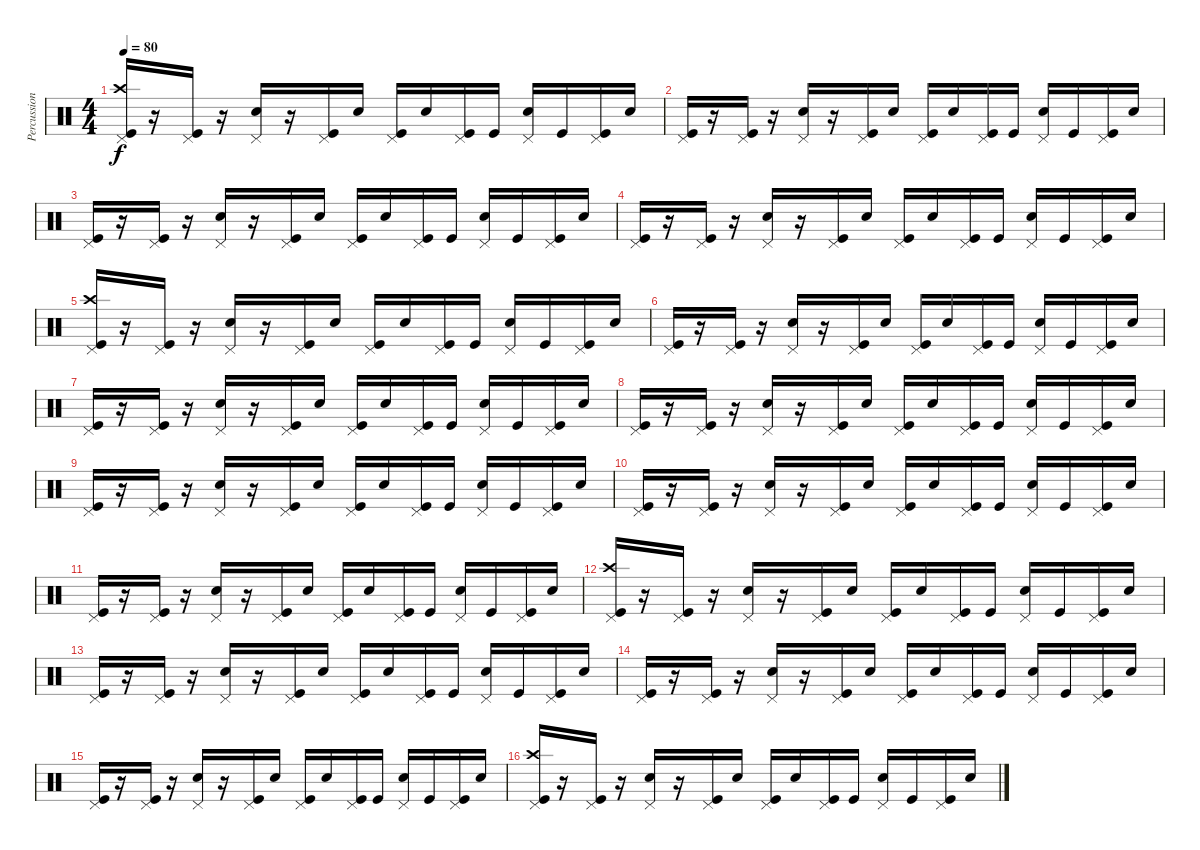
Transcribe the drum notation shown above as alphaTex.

\track ("Percussions" "Percussion") {instrument percussion}
\staff {score}
\articulation defaults
\ts (4 4)
\tempo 80
\clef neutral
\ks c
("Pedal Hi-Hat (hit)" "Crash high (hit)" "Kick (hit)").16{dy f} r.16 ("Pedal Hi-Hat (hit)" "Kick (hit)").16 r.16 ("Pedal Hi-Hat (hit)" "Electric Snare (hit)").16 r.16 ("Pedal Hi-Hat (hit)" "Kick (hit)").16 "Electric Snare (hit)".16 ("Pedal Hi-Hat (hit)" "Kick (hit)").16 "Electric Snare (hit)".16 ("Pedal Hi-Hat (hit)" "Kick (hit)").16 "Kick (hit)".16 ("Pedal Hi-Hat (hit)" "Electric Snare (hit)").16 "Kick (hit)".16 ("Pedal Hi-Hat (hit)" "Kick (hit)").16 "Electric Snare (hit)".16 |
("Pedal Hi-Hat (hit)" "Kick (hit)").16 r.16 ("Pedal Hi-Hat (hit)" "Kick (hit)").16 r.16 ("Pedal Hi-Hat (hit)" "Electric Snare (hit)").16 r.16 ("Pedal Hi-Hat (hit)" "Kick (hit)").16 "Electric Snare (hit)".16 ("Pedal Hi-Hat (hit)" "Kick (hit)").16 "Electric Snare (hit)".16 ("Pedal Hi-Hat (hit)" "Kick (hit)").16 "Kick (hit)".16 ("Pedal Hi-Hat (hit)" "Electric Snare (hit)").16 "Kick (hit)".16 ("Pedal Hi-Hat (hit)" "Kick (hit)").16 "Electric Snare (hit)".16 |
("Pedal Hi-Hat (hit)" "Kick (hit)").16 r.16 ("Pedal Hi-Hat (hit)" "Kick (hit)").16 r.16 ("Pedal Hi-Hat (hit)" "Electric Snare (hit)").16 r.16 ("Pedal Hi-Hat (hit)" "Kick (hit)").16 "Electric Snare (hit)".16 ("Pedal Hi-Hat (hit)" "Kick (hit)").16 "Electric Snare (hit)".16 ("Pedal Hi-Hat (hit)" "Kick (hit)").16 "Kick (hit)".16 ("Pedal Hi-Hat (hit)" "Electric Snare (hit)").16 "Kick (hit)".16 ("Pedal Hi-Hat (hit)" "Kick (hit)").16 "Electric Snare (hit)".16 |
("Pedal Hi-Hat (hit)" "Kick (hit)").16 r.16 ("Pedal Hi-Hat (hit)" "Kick (hit)").16 r.16 ("Pedal Hi-Hat (hit)" "Electric Snare (hit)").16 r.16 ("Pedal Hi-Hat (hit)" "Kick (hit)").16 "Electric Snare (hit)".16 ("Pedal Hi-Hat (hit)" "Kick (hit)").16 "Electric Snare (hit)".16 ("Pedal Hi-Hat (hit)" "Kick (hit)").16 "Kick (hit)".16 ("Pedal Hi-Hat (hit)" "Electric Snare (hit)").16 "Kick (hit)".16 ("Pedal Hi-Hat (hit)" "Kick (hit)").16 "Electric Snare (hit)".16 |
("Pedal Hi-Hat (hit)" "Crash high (hit)" "Kick (hit)").16 r.16 ("Pedal Hi-Hat (hit)" "Kick (hit)").16 r.16 ("Pedal Hi-Hat (hit)" "Electric Snare (hit)").16 r.16 ("Pedal Hi-Hat (hit)" "Kick (hit)").16 "Electric Snare (hit)".16 ("Pedal Hi-Hat (hit)" "Kick (hit)").16 "Electric Snare (hit)".16 ("Pedal Hi-Hat (hit)" "Kick (hit)").16 "Kick (hit)".16 ("Pedal Hi-Hat (hit)" "Electric Snare (hit)").16 "Kick (hit)".16 ("Pedal Hi-Hat (hit)" "Kick (hit)").16 "Electric Snare (hit)".16 |
("Pedal Hi-Hat (hit)" "Kick (hit)").16 r.16 ("Pedal Hi-Hat (hit)" "Kick (hit)").16 r.16 ("Pedal Hi-Hat (hit)" "Electric Snare (hit)").16 r.16 ("Pedal Hi-Hat (hit)" "Kick (hit)").16 "Electric Snare (hit)".16 ("Pedal Hi-Hat (hit)" "Kick (hit)").16 "Electric Snare (hit)".16 ("Pedal Hi-Hat (hit)" "Kick (hit)").16 "Kick (hit)".16 ("Pedal Hi-Hat (hit)" "Electric Snare (hit)").16 "Kick (hit)".16 ("Pedal Hi-Hat (hit)" "Kick (hit)").16 "Electric Snare (hit)".16 |
("Pedal Hi-Hat (hit)" "Kick (hit)").16 r.16 ("Pedal Hi-Hat (hit)" "Kick (hit)").16 r.16 ("Pedal Hi-Hat (hit)" "Electric Snare (hit)").16 r.16 ("Pedal Hi-Hat (hit)" "Kick (hit)").16 "Electric Snare (hit)".16 ("Pedal Hi-Hat (hit)" "Kick (hit)").16 "Electric Snare (hit)".16 ("Pedal Hi-Hat (hit)" "Kick (hit)").16 "Kick (hit)".16 ("Pedal Hi-Hat (hit)" "Electric Snare (hit)").16 "Kick (hit)".16 ("Pedal Hi-Hat (hit)" "Kick (hit)").16 "Electric Snare (hit)".16 |
("Pedal Hi-Hat (hit)" "Kick (hit)").16 r.16 ("Pedal Hi-Hat (hit)" "Kick (hit)").16 r.16 ("Pedal Hi-Hat (hit)" "Electric Snare (hit)").16 r.16 ("Pedal Hi-Hat (hit)" "Kick (hit)").16 "Electric Snare (hit)".16 ("Pedal Hi-Hat (hit)" "Kick (hit)").16 "Electric Snare (hit)".16 ("Pedal Hi-Hat (hit)" "Kick (hit)").16 "Kick (hit)".16 ("Pedal Hi-Hat (hit)" "Electric Snare (hit)").16 "Kick (hit)".16 ("Pedal Hi-Hat (hit)" "Kick (hit)").16 "Electric Snare (hit)".16 |
("Pedal Hi-Hat (hit)" "Kick (hit)").16 r.16 ("Pedal Hi-Hat (hit)" "Kick (hit)").16 r.16 ("Pedal Hi-Hat (hit)" "Electric Snare (hit)").16 r.16 ("Pedal Hi-Hat (hit)" "Kick (hit)").16 "Electric Snare (hit)".16 ("Pedal Hi-Hat (hit)" "Kick (hit)").16 "Electric Snare (hit)".16 ("Pedal Hi-Hat (hit)" "Kick (hit)").16 "Kick (hit)".16 ("Pedal Hi-Hat (hit)" "Electric Snare (hit)").16 "Kick (hit)".16 ("Pedal Hi-Hat (hit)" "Kick (hit)").16 "Electric Snare (hit)".16 |
("Pedal Hi-Hat (hit)" "Kick (hit)").16 r.16 ("Pedal Hi-Hat (hit)" "Kick (hit)").16 r.16 ("Pedal Hi-Hat (hit)" "Electric Snare (hit)").16 r.16 ("Pedal Hi-Hat (hit)" "Kick (hit)").16 "Electric Snare (hit)".16 ("Pedal Hi-Hat (hit)" "Kick (hit)").16 "Electric Snare (hit)".16 ("Pedal Hi-Hat (hit)" "Kick (hit)").16 "Kick (hit)".16 ("Pedal Hi-Hat (hit)" "Electric Snare (hit)").16 "Kick (hit)".16 ("Pedal Hi-Hat (hit)" "Kick (hit)").16 "Electric Snare (hit)".16 |
("Pedal Hi-Hat (hit)" "Kick (hit)").16 r.16 ("Pedal Hi-Hat (hit)" "Kick (hit)").16 r.16 ("Pedal Hi-Hat (hit)" "Electric Snare (hit)").16 r.16 ("Pedal Hi-Hat (hit)" "Kick (hit)").16 "Electric Snare (hit)".16 ("Pedal Hi-Hat (hit)" "Kick (hit)").16 "Electric Snare (hit)".16 ("Pedal Hi-Hat (hit)" "Kick (hit)").16 "Kick (hit)".16 ("Pedal Hi-Hat (hit)" "Electric Snare (hit)").16 "Kick (hit)".16 ("Pedal Hi-Hat (hit)" "Kick (hit)").16 "Electric Snare (hit)".16 |
("Pedal Hi-Hat (hit)" "Crash high (hit)" "Kick (hit)").16 r.16 ("Pedal Hi-Hat (hit)" "Kick (hit)").16 r.16 ("Pedal Hi-Hat (hit)" "Electric Snare (hit)").16 r.16 ("Pedal Hi-Hat (hit)" "Kick (hit)").16 "Electric Snare (hit)".16 ("Pedal Hi-Hat (hit)" "Kick (hit)").16 "Electric Snare (hit)".16 ("Pedal Hi-Hat (hit)" "Kick (hit)").16 "Kick (hit)".16 ("Pedal Hi-Hat (hit)" "Electric Snare (hit)").16 "Kick (hit)".16 ("Pedal Hi-Hat (hit)" "Kick (hit)").16 "Electric Snare (hit)".16 |
("Pedal Hi-Hat (hit)" "Kick (hit)").16 r.16 ("Pedal Hi-Hat (hit)" "Kick (hit)").16 r.16 ("Pedal Hi-Hat (hit)" "Electric Snare (hit)").16 r.16 ("Pedal Hi-Hat (hit)" "Kick (hit)").16 "Electric Snare (hit)".16 ("Pedal Hi-Hat (hit)" "Kick (hit)").16 "Electric Snare (hit)".16 ("Pedal Hi-Hat (hit)" "Kick (hit)").16 "Kick (hit)".16 ("Pedal Hi-Hat (hit)" "Electric Snare (hit)").16 "Kick (hit)".16 ("Pedal Hi-Hat (hit)" "Kick (hit)").16 "Electric Snare (hit)".16 |
("Pedal Hi-Hat (hit)" "Kick (hit)").16 r.16 ("Pedal Hi-Hat (hit)" "Kick (hit)").16 r.16 ("Pedal Hi-Hat (hit)" "Electric Snare (hit)").16 r.16 ("Pedal Hi-Hat (hit)" "Kick (hit)").16 "Electric Snare (hit)".16 ("Pedal Hi-Hat (hit)" "Kick (hit)").16 "Electric Snare (hit)".16 ("Pedal Hi-Hat (hit)" "Kick (hit)").16 "Kick (hit)".16 ("Pedal Hi-Hat (hit)" "Electric Snare (hit)").16 "Kick (hit)".16 ("Pedal Hi-Hat (hit)" "Kick (hit)").16 "Electric Snare (hit)".16 |
("Pedal Hi-Hat (hit)" "Kick (hit)").16 r.16 ("Pedal Hi-Hat (hit)" "Kick (hit)").16 r.16 ("Pedal Hi-Hat (hit)" "Electric Snare (hit)").16 r.16 ("Pedal Hi-Hat (hit)" "Kick (hit)").16 "Electric Snare (hit)".16 ("Pedal Hi-Hat (hit)" "Kick (hit)").16 "Electric Snare (hit)".16 ("Pedal Hi-Hat (hit)" "Kick (hit)").16 "Kick (hit)".16 ("Pedal Hi-Hat (hit)" "Electric Snare (hit)").16 "Kick (hit)".16 ("Pedal Hi-Hat (hit)" "Kick (hit)").16 "Electric Snare (hit)".16 |
("Pedal Hi-Hat (hit)" "Crash high (hit)" "Kick (hit)").16 r.16 ("Pedal Hi-Hat (hit)" "Kick (hit)").16 r.16 ("Pedal Hi-Hat (hit)" "Electric Snare (hit)").16 r.16 ("Pedal Hi-Hat (hit)" "Kick (hit)").16 "Electric Snare (hit)".16 ("Pedal Hi-Hat (hit)" "Kick (hit)").16 "Electric Snare (hit)".16 ("Pedal Hi-Hat (hit)" "Kick (hit)").16 "Kick (hit)".16 ("Pedal Hi-Hat (hit)" "Electric Snare (hit)").16 "Kick (hit)".16 ("Pedal Hi-Hat (hit)" "Kick (hit)").16 "Electric Snare (hit)".16
